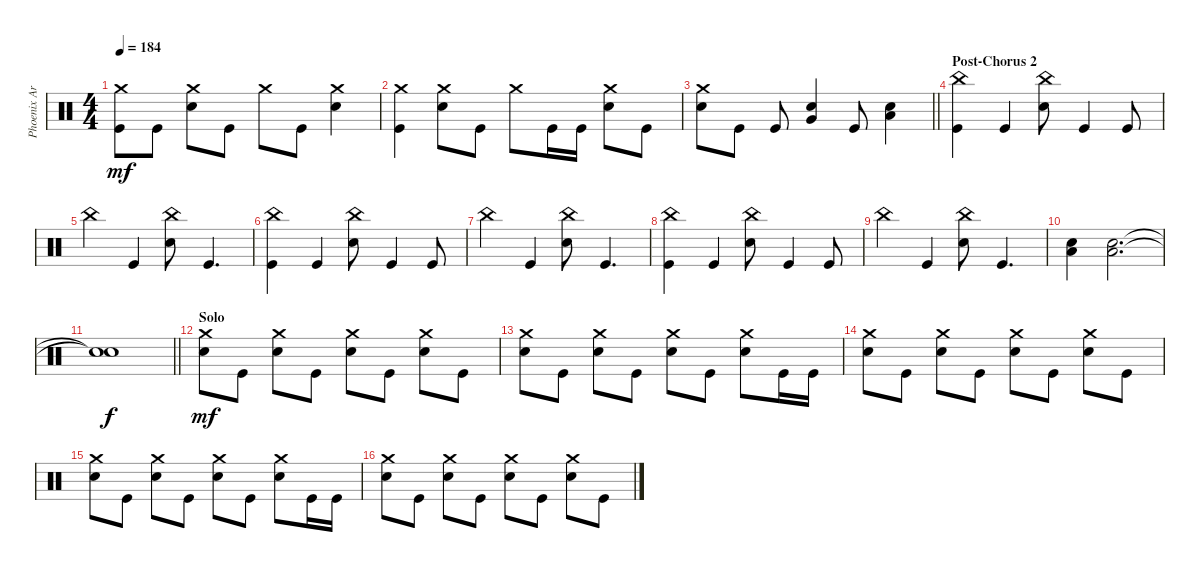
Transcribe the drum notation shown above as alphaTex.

\track ("Phoenix Arn-Horn (Drums)" "Phoenix Ar") {instrument percussion}
\staff {score}
\articulation defaults
\ts (4 4)
\tempo 184
\clef neutral
\ks c
("Kick (hit)" "Crash medium (hit)").8{dy mf} "Kick (hit)".8 ("Snare (hit) 2" "Crash medium (hit)").8 "Kick (hit)".8 "Crash medium (hit)".8 "Kick (hit)".8 ("Snare (hit) 2" "Crash medium (hit)").4 |
("Kick (hit)" "Crash medium (hit)").4 ("Snare (hit) 2" "Crash medium (hit)").8 "Kick (hit)".8 "Crash medium (hit)".8 "Kick (hit)".16 "Kick (hit)".16 ("Snare (hit) 2" "Crash medium (hit)").8 "Kick (hit)".8 |
\barLineRight lightlight
("Snare (hit) 2" "Crash medium (hit)").8 "Kick (hit)".8 "Kick (hit)".8 ("Snare (hit) 2" "Very Low Tom (hit)").4 "Kick (hit)".8 ("Snare (hit) 2" "Low Floor Tom (hit)").4 |
\section ("" "Post-Chorus 2")
("Kick (hit)" "China (hit)").4 "Kick (hit)".4 ("Snare (hit) 2" "China (hit)").8 "Kick (hit)".4 "Kick (hit)".8 |
"China (hit)".4 "Kick (hit)".4 ("Snare (hit) 2" "China (hit)").8 "Kick (hit)".4{d} |
("Kick (hit)" "China (hit)").4 "Kick (hit)".4 ("Snare (hit) 2" "China (hit)").8 "Kick (hit)".4 "Kick (hit)".8 |
"China (hit)".4 "Kick (hit)".4 ("Snare (hit) 2" "China (hit)").8 "Kick (hit)".4{d} |
("Kick (hit)" "China (hit)").4 "Kick (hit)".4 ("Snare (hit) 2" "China (hit)").8 "Kick (hit)".4 "Kick (hit)".8 |
"China (hit)".4 "Kick (hit)".4 ("Snare (hit) 2" "China (hit)").8 "Kick (hit)".4{d} |
("Snare (hit) 2" "Low Floor Tom (hit)").4 ("Snare (hit) 2" "Low Floor Tom (hit)").2{d} |
\barLineRight lightlight
("Snare (hit)"{t} "Snare (hit)"{t}).1{dy f} |
\section ("" "Solo")
("Snare (hit) 2" "Crash medium (hit)").8{dy mf} "Kick (hit)".8 ("Snare (hit) 2" "Crash medium (hit)").8 "Kick (hit)".8 ("Snare (hit) 2" "Crash medium (hit)").8 "Kick (hit)".8 ("Snare (hit) 2" "Crash medium (hit)").8 "Kick (hit)".8 |
("Snare (hit) 2" "Crash medium (hit)").8 "Kick (hit)".8 ("Snare (hit) 2" "Crash medium (hit)").8 "Kick (hit)".8 ("Snare (hit) 2" "Crash medium (hit)").8 "Kick (hit)".8 ("Snare (hit) 2" "Crash medium (hit)").8 "Kick (hit)".16 "Kick (hit)".16 |
("Snare (hit) 2" "Crash medium (hit)").8 "Kick (hit)".8 ("Snare (hit) 2" "Crash medium (hit)").8 "Kick (hit)".8 ("Snare (hit) 2" "Crash medium (hit)").8 "Kick (hit)".8 ("Snare (hit) 2" "Crash medium (hit)").8 "Kick (hit)".8 |
("Snare (hit) 2" "Crash medium (hit)").8 "Kick (hit)".8 ("Snare (hit) 2" "Crash medium (hit)").8 "Kick (hit)".8 ("Snare (hit) 2" "Crash medium (hit)").8 "Kick (hit)".8 ("Snare (hit) 2" "Crash medium (hit)").8 "Kick (hit)".16 "Kick (hit)".16 |
("Snare (hit) 2" "Crash medium (hit)").8 "Kick (hit)".8 ("Snare (hit) 2" "Crash medium (hit)").8 "Kick (hit)".8 ("Snare (hit) 2" "Crash medium (hit)").8 "Kick (hit)".8 ("Snare (hit) 2" "Crash medium (hit)").8 "Kick (hit)".8
